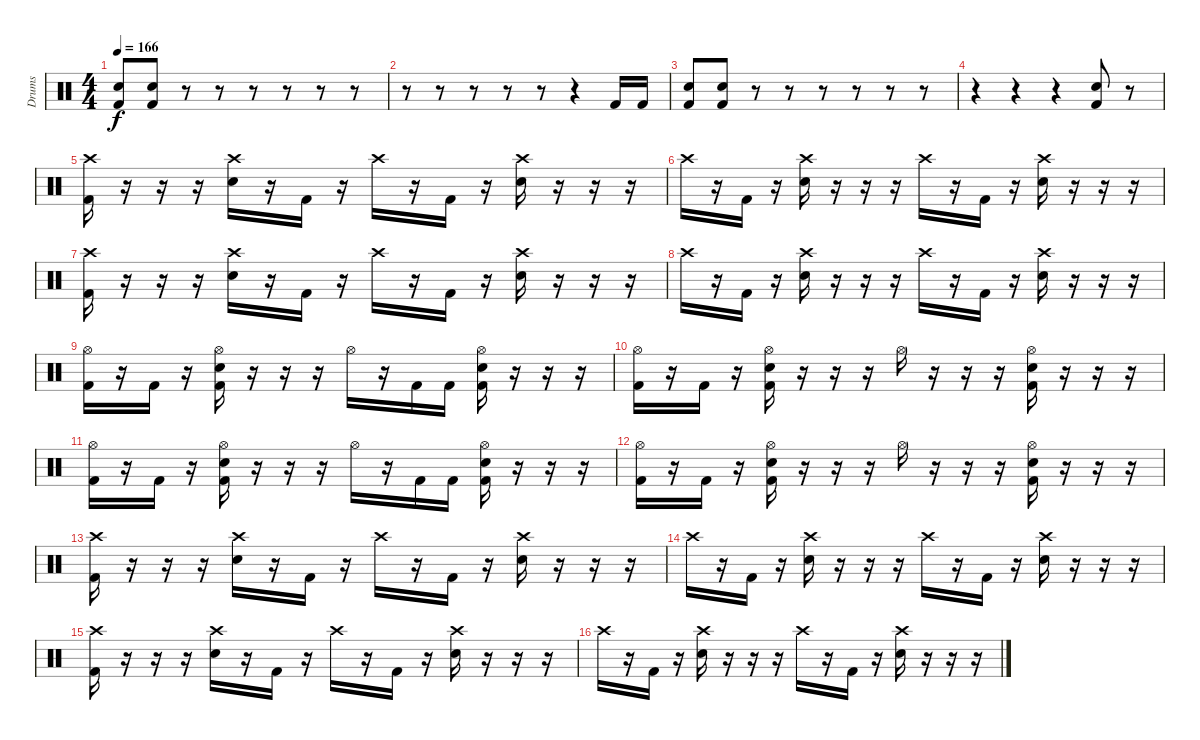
\track ("Drums" "Drums") {instrument percussion}
\staff {score}
\articulation defaults
\ts (4 4)
\tempo 166
\clef neutral
\ks c
("Electric Snare (hit)" "Kick (hit) 2").8{dy f} ("Electric Snare (hit)" "Kick (hit) 2").8 r.8 r.8 r.8 r.8 r.8 r.8 |
r.8 r.8 r.8 r.8 r.8 r.4 "Kick (hit) 2".16 "Kick (hit) 2".16 |
("Electric Snare (hit)" "Kick (hit) 2").8 ("Electric Snare (hit)" "Kick (hit) 2").8 r.8 r.8 r.8 r.8 r.8 r.8 |
r.4 r.4 r.4 ("Electric Snare (hit)" "Kick (hit) 2").8 r.8 |
("Crash high (hit)" "Kick (hit) 2").16 r.16 r.16 r.16 ("Crash high (hit)" "Electric Snare (hit)").16 r.16 "Kick (hit) 2".16 r.16 "Crash high (hit)".16 r.16 "Kick (hit) 2".16 r.16 ("Crash high (hit)" "Electric Snare (hit)").16 r.16 r.16 r.16 |
"Crash high (hit)".16 r.16 "Kick (hit) 2".16 r.16 ("Crash high (hit)" "Electric Snare (hit)").16 r.16 r.16 r.16 "Crash high (hit)".16 r.16 "Kick (hit) 2".16 r.16 ("Crash high (hit)" "Electric Snare (hit)").16 r.16 r.16 r.16 |
("Crash high (hit)" "Kick (hit) 2").16 r.16 r.16 r.16 ("Crash high (hit)" "Electric Snare (hit)").16 r.16 "Kick (hit) 2".16 r.16 "Crash high (hit)".16 r.16 "Kick (hit) 2".16 r.16 ("Crash high (hit)" "Electric Snare (hit)").16 r.16 r.16 r.16 |
"Crash high (hit)".16 r.16 "Kick (hit) 2".16 r.16 ("Crash high (hit)" "Electric Snare (hit)").16 r.16 r.16 r.16 "Crash high (hit)".16 r.16 "Kick (hit) 2".16 r.16 ("Crash high (hit)" "Electric Snare (hit)").16 r.16 r.16 r.16 |
("Hi-Hat (open)" "Kick (hit) 2").16 r.16 "Kick (hit) 2".16 r.16 ("Hi-Hat (open)" "Electric Snare (hit)" "Kick (hit) 2").16 r.16 r.16 r.16 "Hi-Hat (open)".16 r.16 "Kick (hit) 2".16 "Kick (hit) 2".16 ("Hi-Hat (open)" "Electric Snare (hit)" "Kick (hit) 2").16 r.16 r.16 r.16 |
("Hi-Hat (open)" "Kick (hit) 2").16 r.16 "Kick (hit) 2".16 r.16 ("Hi-Hat (open)" "Electric Snare (hit)" "Kick (hit) 2").16 r.16 r.16 r.16 "Hi-Hat (open)".16 r.16 r.16 r.16 ("Hi-Hat (open)" "Electric Snare (hit)" "Kick (hit) 2").16 r.16 r.16 r.16 |
("Hi-Hat (open)" "Kick (hit) 2").16 r.16 "Kick (hit) 2".16 r.16 ("Hi-Hat (open)" "Electric Snare (hit)" "Kick (hit) 2").16 r.16 r.16 r.16 "Hi-Hat (open)".16 r.16 "Kick (hit) 2".16 "Kick (hit) 2".16 ("Hi-Hat (open)" "Electric Snare (hit)" "Kick (hit) 2").16 r.16 r.16 r.16 |
("Hi-Hat (open)" "Kick (hit) 2").16 r.16 "Kick (hit) 2".16 r.16 ("Hi-Hat (open)" "Electric Snare (hit)" "Kick (hit) 2").16 r.16 r.16 r.16 "Hi-Hat (open)".16 r.16 r.16 r.16 ("Hi-Hat (open)" "Electric Snare (hit)" "Kick (hit) 2").16 r.16 r.16 r.16 |
("Crash high (hit)" "Kick (hit) 2").16 r.16 r.16 r.16 ("Crash high (hit)" "Electric Snare (hit)").16 r.16 "Kick (hit) 2".16 r.16 "Crash high (hit)".16 r.16 "Kick (hit) 2".16 r.16 ("Crash high (hit)" "Electric Snare (hit)").16 r.16 r.16 r.16 |
"Crash high (hit)".16 r.16 "Kick (hit) 2".16 r.16 ("Crash high (hit)" "Electric Snare (hit)").16 r.16 r.16 r.16 "Crash high (hit)".16 r.16 "Kick (hit) 2".16 r.16 ("Crash high (hit)" "Electric Snare (hit)").16 r.16 r.16 r.16 |
("Crash high (hit)" "Kick (hit) 2").16 r.16 r.16 r.16 ("Crash high (hit)" "Electric Snare (hit)").16 r.16 "Kick (hit) 2".16 r.16 "Crash high (hit)".16 r.16 "Kick (hit) 2".16 r.16 ("Crash high (hit)" "Electric Snare (hit)").16 r.16 r.16 r.16 |
"Crash high (hit)".16 r.16 "Kick (hit) 2".16 r.16 ("Crash high (hit)" "Electric Snare (hit)").16 r.16 r.16 r.16 "Crash high (hit)".16 r.16 "Kick (hit) 2".16 r.16 ("Crash high (hit)" "Electric Snare (hit)").16 r.16 r.16 r.16
